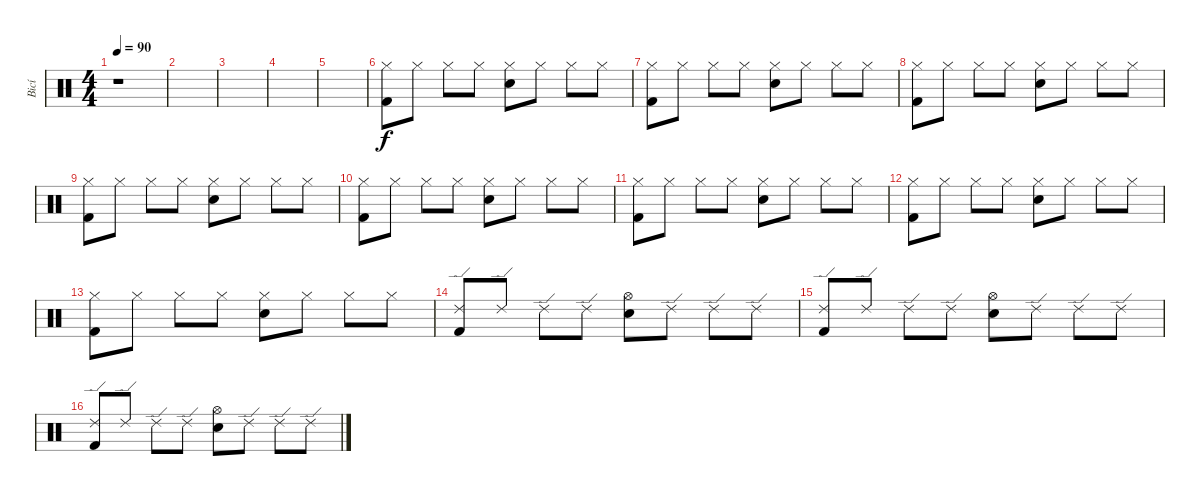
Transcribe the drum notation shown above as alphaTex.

\track ("Bicí" "Bicí") {instrument percussion}
\staff {score}
\articulation defaults
\ts (4 4)
\tempo 90
\clef neutral
\ks c
r.1{dy f} |
|
|
|
|
("Hi-Hat (closed)" "Kick (hit) 2").8 "Hi-Hat (closed)".8 "Hi-Hat (closed)".8 "Hi-Hat (closed)".8 ("Hi-Hat (closed)" "Electric Snare (hit)").8 "Hi-Hat (closed)".8 "Hi-Hat (closed)".8 "Hi-Hat (closed)".8 |
("Hi-Hat (closed)" "Kick (hit) 2").8 "Hi-Hat (closed)".8 "Hi-Hat (closed)".8 "Hi-Hat (closed)".8 ("Hi-Hat (closed)" "Electric Snare (hit)").8 "Hi-Hat (closed)".8 "Hi-Hat (closed)".8 "Hi-Hat (closed)".8 |
("Hi-Hat (closed)" "Kick (hit) 2").8 "Hi-Hat (closed)".8 "Hi-Hat (closed)".8 "Hi-Hat (closed)".8 ("Hi-Hat (closed)" "Electric Snare (hit)").8 "Hi-Hat (closed)".8 "Hi-Hat (closed)".8 "Hi-Hat (closed)".8 |
("Hi-Hat (closed)" "Kick (hit) 2").8 "Hi-Hat (closed)".8 "Hi-Hat (closed)".8 "Hi-Hat (closed)".8 ("Hi-Hat (closed)" "Electric Snare (hit)").8 "Hi-Hat (closed)".8 "Hi-Hat (closed)".8 "Hi-Hat (closed)".8 |
("Hi-Hat (closed)" "Kick (hit) 2").8 "Hi-Hat (closed)".8 "Hi-Hat (closed)".8 "Hi-Hat (closed)".8 ("Hi-Hat (closed)" "Electric Snare (hit)").8 "Hi-Hat (closed)".8 "Hi-Hat (closed)".8 "Hi-Hat (closed)".8 |
("Hi-Hat (closed)" "Kick (hit) 2").8 "Hi-Hat (closed)".8 "Hi-Hat (closed)".8 "Hi-Hat (closed)".8 ("Hi-Hat (closed)" "Electric Snare (hit)").8 "Hi-Hat (closed)".8 "Hi-Hat (closed)".8 "Hi-Hat (closed)".8 |
("Hi-Hat (closed)" "Kick (hit) 2").8 "Hi-Hat (closed)".8 "Hi-Hat (closed)".8 "Hi-Hat (closed)".8 ("Hi-Hat (closed)" "Electric Snare (hit)").8 "Hi-Hat (closed)".8 "Hi-Hat (closed)".8 "Hi-Hat (closed)".8 |
("Hi-Hat (closed)" "Kick (hit) 2").8 "Hi-Hat (closed)".8 "Hi-Hat (closed)".8 "Hi-Hat (closed)".8 ("Hi-Hat (closed)" "Electric Snare (hit)").8 "Hi-Hat (closed)".8 "Hi-Hat (closed)".8 "Hi-Hat (closed)".8 |
("Ride (edge) 2" "Kick (hit) 2").8 "Ride (edge) 2".8 "Ride (edge) 2".8 "Ride (edge) 2".8 ("Hi-Hat (open)" "Electric Snare (hit)").8 "Ride (edge) 2".8 "Ride (edge) 2".8 "Ride (edge) 2".8 |
("Ride (edge) 2" "Kick (hit) 2").8 "Ride (edge) 2".8 "Ride (edge) 2".8 "Ride (edge) 2".8 ("Hi-Hat (open)" "Electric Snare (hit)").8 "Ride (edge) 2".8 "Ride (edge) 2".8 "Ride (edge) 2".8 |
("Ride (edge) 2" "Kick (hit) 2").8 "Ride (edge) 2".8 "Ride (edge) 2".8 "Ride (edge) 2".8 ("Hi-Hat (open)" "Electric Snare (hit)").8 "Ride (edge) 2".8 "Ride (edge) 2".8 "Ride (edge) 2".8
